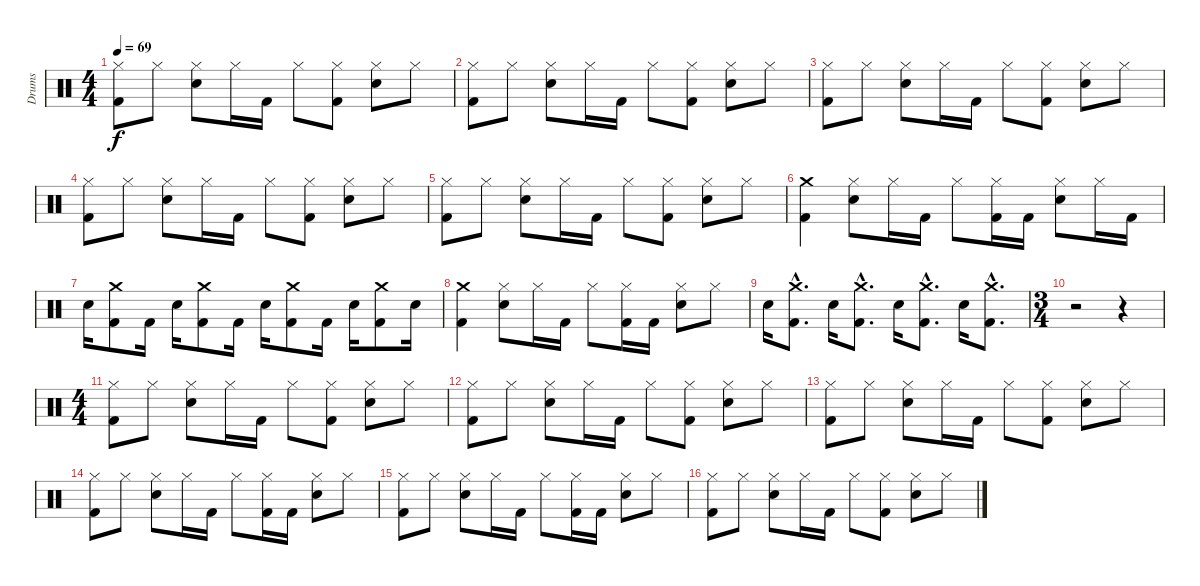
\track ("Drums" "Drums") {instrument percussion}
\staff {score}
\articulation defaults
\ts (4 4)
\tempo 69
\clef neutral
\ks c
("Hi-Hat (closed)" "Kick (hit) 2").8{dy f} "Hi-Hat (closed)".8 ("Hi-Hat (closed)" "Snare (hit) 2").8 "Hi-Hat (closed)".16 "Kick (hit) 2".16 "Hi-Hat (closed)".8 ("Kick (hit) 2" "Hi-Hat (closed)").8 ("Hi-Hat (closed)" "Snare (hit) 2").8 "Hi-Hat (closed)".8 |
("Hi-Hat (closed)" "Kick (hit) 2").8 "Hi-Hat (closed)".8 ("Hi-Hat (closed)" "Snare (hit) 2").8 "Hi-Hat (closed)".16 "Kick (hit) 2".16 "Hi-Hat (closed)".8 ("Kick (hit) 2" "Hi-Hat (closed)").8 ("Hi-Hat (closed)" "Snare (hit) 2").8 "Hi-Hat (closed)".8 |
("Hi-Hat (closed)" "Kick (hit) 2").8 "Hi-Hat (closed)".8 ("Hi-Hat (closed)" "Snare (hit) 2").8 "Hi-Hat (closed)".16 "Kick (hit) 2".16 "Hi-Hat (closed)".8 ("Kick (hit) 2" "Hi-Hat (closed)").8 ("Hi-Hat (closed)" "Snare (hit) 2").8 "Hi-Hat (closed)".8 |
("Hi-Hat (closed)" "Kick (hit) 2").8 "Hi-Hat (closed)".8 ("Hi-Hat (closed)" "Snare (hit) 2").8 "Hi-Hat (closed)".16 "Kick (hit) 2".16 "Hi-Hat (closed)".8 ("Kick (hit) 2" "Hi-Hat (closed)").8 ("Hi-Hat (closed)" "Snare (hit) 2").8 "Hi-Hat (closed)".8 |
("Hi-Hat (closed)" "Kick (hit) 2").8 "Hi-Hat (closed)".8 ("Hi-Hat (closed)" "Snare (hit) 2").8 "Hi-Hat (closed)".16 "Kick (hit) 2".16 "Hi-Hat (closed)".8 ("Kick (hit) 2" "Hi-Hat (closed)").8 ("Hi-Hat (closed)" "Snare (hit) 2").8 "Hi-Hat (closed)".8 |
("Crash medium (hit)" "Kick (hit) 2").4 ("Snare (hit) 2" "Hi-Hat (closed)").8 "Hi-Hat (closed)".16 "Kick (hit) 2".16 "Hi-Hat (closed)".8 ("Hi-Hat (closed)" "Kick (hit) 2").16 "Kick (hit) 2".16 ("Hi-Hat (closed)" "Snare (hit) 2").8 "Hi-Hat (closed)".16 "Kick (hit) 2".16 |
"Snare (hit) 2".16 ("Crash medium (hit)" "Kick (hit) 2").8 "Kick (hit) 2".16 "Snare (hit) 2".16 ("Crash medium (hit)" "Kick (hit) 2").8 "Kick (hit) 2".16 "Snare (hit) 2".16 ("Crash medium (hit)" "Kick (hit) 2").8 "Kick (hit) 2".16 "Snare (hit) 2".16 ("Crash medium (hit)" "Kick (hit) 2").8 "Snare (hit) 2".16 |
("Kick (hit) 2" "Crash medium (hit)").4 ("Hi-Hat (closed)" "Snare (hit) 2").8 "Hi-Hat (closed)".16 "Kick (hit) 2".16 "Hi-Hat (closed)".8 ("Kick (hit) 2" "Hi-Hat (closed)").16 "Kick (hit) 2".16 ("Hi-Hat (closed)" "Snare (hit) 2").8 "Hi-Hat (closed)".8 |
"Snare (hit) 2".16 ("Crash medium (hit)"{hac} "Kick (hit) 2"{hac}).8{d} "Snare (hit) 2".16 ("Crash medium (hit)"{hac} "Kick (hit) 2"{hac}).8{d} "Snare (hit) 2".16 ("Crash medium (hit)"{hac} "Kick (hit) 2"{hac}).8{d} "Snare (hit) 2".16 ("Crash medium (hit)"{hac} "Kick (hit) 2"{hac}).8{d} |
\ts (3 4)
r.2 r.4 |
\ts (4 4)
("Hi-Hat (closed)" "Kick (hit) 2").8 "Hi-Hat (closed)".8 ("Hi-Hat (closed)" "Snare (hit) 2").8 "Hi-Hat (closed)".16 "Kick (hit) 2".16 "Hi-Hat (closed)".8 ("Kick (hit) 2" "Hi-Hat (closed)").8 ("Hi-Hat (closed)" "Snare (hit) 2").8 "Hi-Hat (closed)".8 |
("Hi-Hat (closed)" "Kick (hit) 2").8 "Hi-Hat (closed)".8 ("Hi-Hat (closed)" "Snare (hit) 2").8 "Hi-Hat (closed)".16 "Kick (hit) 2".16 "Hi-Hat (closed)".8 ("Kick (hit) 2" "Hi-Hat (closed)").8 ("Hi-Hat (closed)" "Snare (hit) 2").8 "Hi-Hat (closed)".8 |
("Hi-Hat (closed)" "Kick (hit) 2").8 "Hi-Hat (closed)".8 ("Hi-Hat (closed)" "Snare (hit) 2").8 "Hi-Hat (closed)".16 "Kick (hit) 2".16 "Hi-Hat (closed)".8 ("Kick (hit) 2" "Hi-Hat (closed)").8 ("Hi-Hat (closed)" "Snare (hit) 2").8 "Hi-Hat (closed)".8 |
("Hi-Hat (closed)" "Kick (hit) 2").8 "Hi-Hat (closed)".8 ("Hi-Hat (closed)" "Snare (hit) 2").8 "Hi-Hat (closed)".16 "Kick (hit) 2".16 "Hi-Hat (closed)".8 ("Kick (hit) 2" "Hi-Hat (closed)").16 "Kick (hit) 2".16 ("Hi-Hat (closed)" "Snare (hit) 2").8 "Hi-Hat (closed)".8 |
("Hi-Hat (closed)" "Kick (hit) 2").8 "Hi-Hat (closed)".8 ("Hi-Hat (closed)" "Snare (hit) 2").8 "Hi-Hat (closed)".16 "Kick (hit) 2".16 "Hi-Hat (closed)".8 ("Kick (hit) 2" "Hi-Hat (closed)").16 "Kick (hit) 2".16 ("Hi-Hat (closed)" "Snare (hit) 2").8 "Hi-Hat (closed)".8 |
("Hi-Hat (closed)" "Kick (hit) 2").8 "Hi-Hat (closed)".8 ("Hi-Hat (closed)" "Snare (hit) 2").8 "Hi-Hat (closed)".16 "Kick (hit) 2".16 "Hi-Hat (closed)".8 ("Kick (hit) 2" "Hi-Hat (closed)").8 ("Hi-Hat (closed)" "Snare (hit) 2").8 "Hi-Hat (closed)".8
